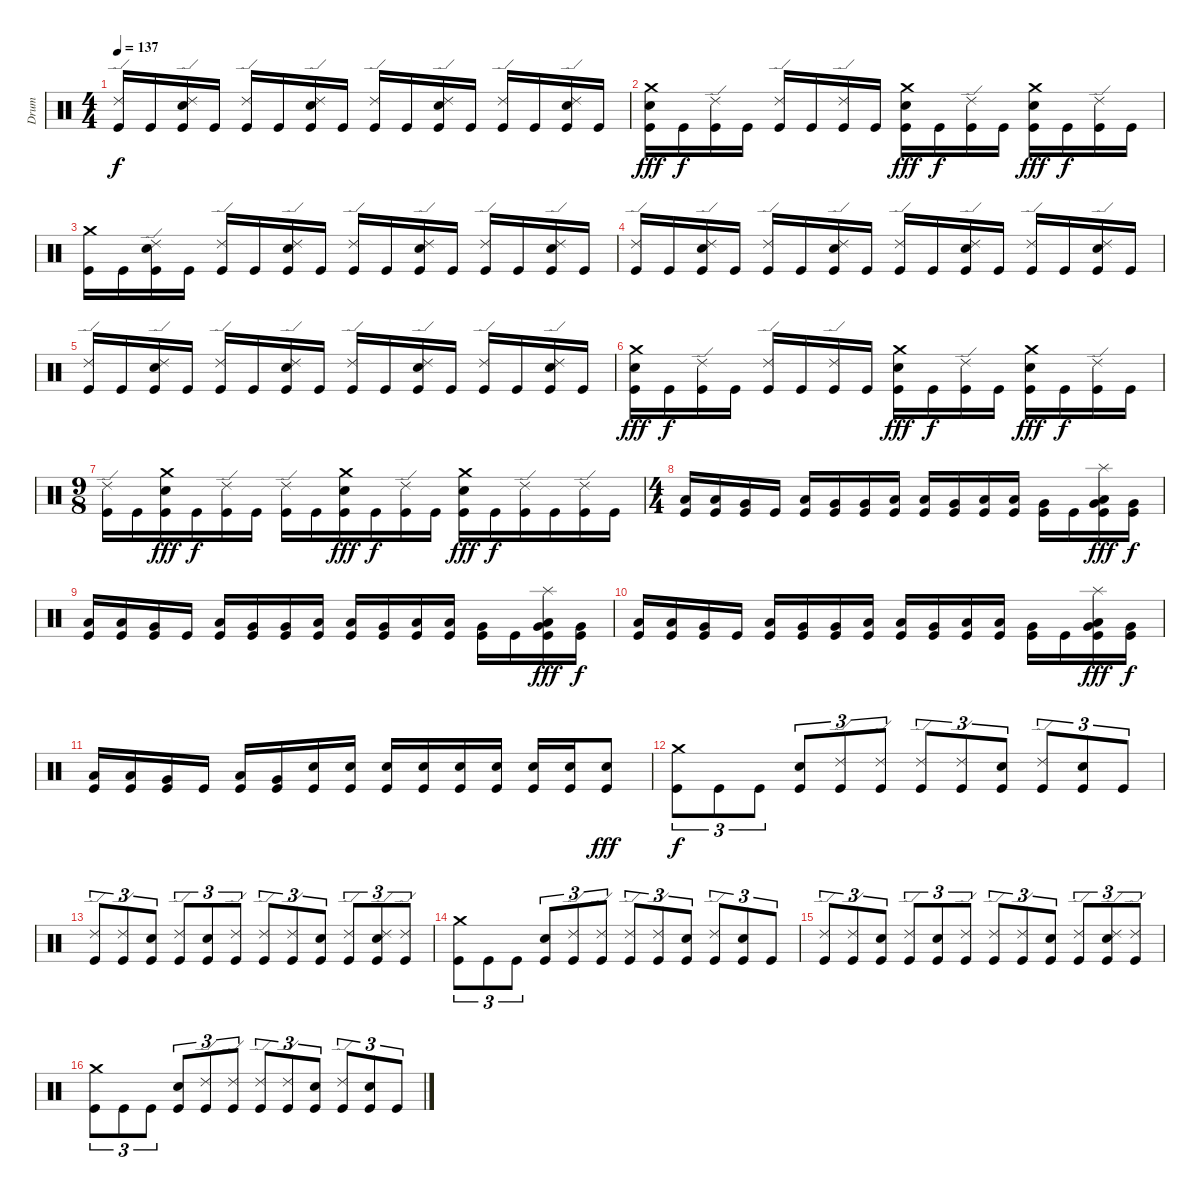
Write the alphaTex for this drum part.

\track ("Drum" "Drum") {instrument percussion}
\staff {score}
\articulation defaults
\ts (4 4)
\tempo 137
\clef neutral
\ks c
("Ride (edge) 2" "Kick (hit)").16{dy f} "Kick (hit)".16 ("Ride (edge) 2" "Snare (hit) 2" "Kick (hit)").16 "Kick (hit)".16 ("Ride (edge) 2" "Kick (hit)").16 "Kick (hit)".16 ("Ride (edge) 2" "Snare (hit) 2" "Kick (hit)").16 "Kick (hit)".16 ("Ride (edge) 2" "Kick (hit)").16 "Kick (hit)".16 ("Ride (edge) 2" "Snare (hit) 2" "Kick (hit)").16 "Kick (hit)".16 ("Ride (edge) 2" "Kick (hit)").16 "Kick (hit)".16 ("Ride (edge) 2" "Snare (hit) 2" "Kick (hit)").16 "Kick (hit)".16 |
("Crash medium (hit)" "Snare (hit) 2" "Kick (hit)").16{dy fff} "Kick (hit)".16{dy f} ("Ride (edge) 2" "Kick (hit)").16 "Kick (hit)".16 ("Ride (edge) 2" "Kick (hit)").16 "Kick (hit)".16 ("Ride (edge) 2" "Kick (hit)").16 "Kick (hit)".16 ("Crash medium (hit)" "Snare (hit) 2" "Kick (hit)").16{dy fff} "Kick (hit)".16{dy f} ("Ride (edge) 2" "Kick (hit)").16 "Kick (hit)".16 ("Crash medium (hit)" "Snare (hit) 2" "Kick (hit)").16{dy fff} "Kick (hit)".16{dy f} ("Ride (edge) 2" "Kick (hit)").16 "Kick (hit)".16 |
("Crash medium (hit)" "Kick (hit)").16 "Kick (hit)".16 ("Ride (edge) 2" "Snare (hit) 2" "Kick (hit)").16 "Kick (hit)".16 ("Ride (edge) 2" "Kick (hit)").16 "Kick (hit)".16 ("Ride (edge) 2" "Snare (hit) 2" "Kick (hit)").16 "Kick (hit)".16 ("Ride (edge) 2" "Kick (hit)").16 "Kick (hit)".16 ("Ride (edge) 2" "Snare (hit) 2" "Kick (hit)").16 "Kick (hit)".16 ("Ride (edge) 2" "Kick (hit)").16 "Kick (hit)".16 ("Ride (edge) 2" "Snare (hit) 2" "Kick (hit)").16 "Kick (hit)".16 |
("Ride (edge) 2" "Kick (hit)").16 "Kick (hit)".16 ("Ride (edge) 2" "Snare (hit) 2" "Kick (hit)").16 "Kick (hit)".16 ("Ride (edge) 2" "Kick (hit)").16 "Kick (hit)".16 ("Ride (edge) 2" "Snare (hit) 2" "Kick (hit)").16 "Kick (hit)".16 ("Ride (edge) 2" "Kick (hit)").16 "Kick (hit)".16 ("Ride (edge) 2" "Snare (hit) 2" "Kick (hit)").16 "Kick (hit)".16 ("Ride (edge) 2" "Kick (hit)").16 "Kick (hit)".16 ("Ride (edge) 2" "Snare (hit) 2" "Kick (hit)").16 "Kick (hit)".16 |
("Ride (edge) 2" "Kick (hit)").16 "Kick (hit)".16 ("Ride (edge) 2" "Snare (hit) 2" "Kick (hit)").16 "Kick (hit)".16 ("Ride (edge) 2" "Kick (hit)").16 "Kick (hit)".16 ("Ride (edge) 2" "Snare (hit) 2" "Kick (hit)").16 "Kick (hit)".16 ("Ride (edge) 2" "Kick (hit)").16 "Kick (hit)".16 ("Ride (edge) 2" "Snare (hit) 2" "Kick (hit)").16 "Kick (hit)".16 ("Ride (edge) 2" "Kick (hit)").16 "Kick (hit)".16 ("Ride (edge) 2" "Snare (hit) 2" "Kick (hit)").16 "Kick (hit)".16 |
("Crash medium (hit)" "Snare (hit) 2" "Kick (hit)").16{dy fff} "Kick (hit)".16{dy f} ("Ride (edge) 2" "Kick (hit)").16 "Kick (hit)".16 ("Ride (edge) 2" "Kick (hit)").16 "Kick (hit)".16 ("Ride (edge) 2" "Kick (hit)").16 "Kick (hit)".16 ("Crash medium (hit)" "Snare (hit) 2" "Kick (hit)").16{dy fff} "Kick (hit)".16{dy f} ("Ride (edge) 2" "Kick (hit)").16 "Kick (hit)".16 ("Crash medium (hit)" "Snare (hit) 2" "Kick (hit)").16{dy fff} "Kick (hit)".16{dy f} ("Ride (edge) 2" "Kick (hit)").16 "Kick (hit)".16 |
\ts (9 8)
("Ride (edge) 2" "Kick (hit)").16 "Kick (hit)".16 ("Crash medium (hit)" "Snare (hit) 2" "Kick (hit)").16{dy fff} "Kick (hit)".16{dy f} ("Ride (edge) 2" "Kick (hit)").16 "Kick (hit)".16 ("Ride (edge) 2" "Kick (hit)").16 "Kick (hit)".16 ("Crash medium (hit)" "Snare (hit) 2" "Kick (hit)").16{dy fff} "Kick (hit)".16{dy f} ("Ride (edge) 2" "Kick (hit)").16 "Kick (hit)".16 ("Crash medium (hit)" "Snare (hit) 2" "Kick (hit)").16{dy fff} "Kick (hit)".16{dy f} ("Ride (edge) 2" "Kick (hit)").16 "Kick (hit)".16 ("Ride (edge) 2" "Kick (hit)").16 "Kick (hit)".16 |
\ts (4 4)
("Low Floor Tom (hit)" "Kick (hit)").16 ("Low Tom (hit)" "Kick (hit)").16 ("Very Low Tom (hit)" "Kick (hit)").16 "Kick (hit)".16 ("Low Tom (hit)" "Kick (hit)").16 ("Very Low Tom (hit)" "Kick (hit)").16 ("Very Low Tom (hit)" "Kick (hit)").16 ("Low Floor Tom (hit)" "Kick (hit)").16 ("Low Tom (hit)" "Kick (hit)").16 ("Very Low Tom (hit)" "Kick (hit)").16 ("Low Floor Tom (hit)" "Kick (hit)").16 ("Low Tom (hit)" "Kick (hit)").16 ("Very Low Tom (hit)" "Kick (hit)").16 "Kick (hit)".16 ("Splash (hit)" "Very Low Tom (hit)" "Low Floor Tom (hit)" "Kick (hit)").16{dy fff} ("Very Low Tom (hit)" "Kick (hit)").16{dy f} |
("Low Floor Tom (hit)" "Kick (hit)").16 ("Low Tom (hit)" "Kick (hit)").16 ("Very Low Tom (hit)" "Kick (hit)").16 "Kick (hit)".16 ("Low Tom (hit)" "Kick (hit)").16 ("Very Low Tom (hit)" "Kick (hit)").16 ("Very Low Tom (hit)" "Kick (hit)").16 ("Low Floor Tom (hit)" "Kick (hit)").16 ("Low Tom (hit)" "Kick (hit)").16 ("Very Low Tom (hit)" "Kick (hit)").16 ("Low Floor Tom (hit)" "Kick (hit)").16 ("Low Tom (hit)" "Kick (hit)").16 ("Very Low Tom (hit)" "Kick (hit)").16 "Kick (hit)".16 ("Splash (hit)" "Very Low Tom (hit)" "Low Floor Tom (hit)" "Kick (hit)").16{dy fff} ("Very Low Tom (hit)" "Kick (hit)").16{dy f} |
("Low Floor Tom (hit)" "Kick (hit)").16 ("Low Tom (hit)" "Kick (hit)").16 ("Very Low Tom (hit)" "Kick (hit)").16 "Kick (hit)".16 ("Low Tom (hit)" "Kick (hit)").16 ("Very Low Tom (hit)" "Kick (hit)").16 ("Very Low Tom (hit)" "Kick (hit)").16 ("Low Floor Tom (hit)" "Kick (hit)").16 ("Low Tom (hit)" "Kick (hit)").16 ("Very Low Tom (hit)" "Kick (hit)").16 ("Low Floor Tom (hit)" "Kick (hit)").16 ("Low Tom (hit)" "Kick (hit)").16 ("Very Low Tom (hit)" "Kick (hit)").16 "Kick (hit)".16 ("Splash (hit)" "Very Low Tom (hit)" "Low Floor Tom (hit)" "Kick (hit)").16{dy fff} ("Very Low Tom (hit)" "Kick (hit)").16{dy f} |
("Low Floor Tom (hit)" "Kick (hit)").16 ("Low Tom (hit)" "Kick (hit)").16 ("Very Low Tom (hit)" "Kick (hit)").16 "Kick (hit)".16 ("Low Tom (hit)" "Kick (hit)").16 ("Very Low Tom (hit)" "Kick (hit)").16 ("Snare (hit) 2" "Kick (hit)").16 ("Snare (hit) 2" "Kick (hit)").16 ("Snare (hit) 2" "Kick (hit)").16 ("Snare (hit) 2" "Kick (hit)").16 ("Snare (hit) 2" "Kick (hit)").16 ("Snare (hit) 2" "Kick (hit)").16 ("Snare (hit) 2" "Kick (hit)").16 ("Snare (hit) 2" "Kick (hit)").16 ("Snare (hit) 2" "Kick (hit)").8{dy fff} |
("Crash medium (hit)" "Kick (hit)").8{tu (3 2) dy f} "Kick (hit)".8{tu (3 2)} "Kick (hit)".8{tu (3 2)} ("Snare (hit) 2" "Kick (hit)").8{tu (3 2)} ("Ride (edge) 2" "Kick (hit)").8{tu (3 2)} ("Ride (edge) 2" "Kick (hit)").8{tu (3 2)} ("Ride (edge) 2" "Kick (hit)").8{tu (3 2)} ("Ride (edge) 2" "Kick (hit)").8{tu (3 2)} ("Snare (hit) 2" "Kick (hit)").8{tu (3 2)} ("Ride (edge) 2" "Kick (hit)").8{tu (3 2)} ("Snare (hit) 2" "Kick (hit)").8{tu (3 2)} "Kick (hit)".8{tu (3 2)} |
("Ride (edge) 2" "Kick (hit)").8{tu (3 2)} ("Ride (edge) 2" "Kick (hit)").8{tu (3 2)} ("Snare (hit) 2" "Kick (hit)").8{tu (3 2)} ("Ride (edge) 2" "Kick (hit)").8{tu (3 2)} ("Snare (hit) 2" "Kick (hit)").8{tu (3 2)} ("Ride (edge) 2" "Kick (hit)").8{tu (3 2)} ("Ride (edge) 2" "Kick (hit)").8{tu (3 2)} ("Ride (edge) 2" "Kick (hit)").8{tu (3 2)} ("Snare (hit) 2" "Kick (hit)").8{tu (3 2)} ("Ride (edge) 2" "Kick (hit)").8{tu (3 2)} ("Ride (edge) 2" "Snare (hit) 2" "Kick (hit)").8{tu (3 2)} ("Ride (edge) 2" "Kick (hit)").8{tu (3 2)} |
("Crash medium (hit)" "Kick (hit)").8{tu (3 2)} "Kick (hit)".8{tu (3 2)} "Kick (hit)".8{tu (3 2)} ("Snare (hit) 2" "Kick (hit)").8{tu (3 2)} ("Ride (edge) 2" "Kick (hit)").8{tu (3 2)} ("Ride (edge) 2" "Kick (hit)").8{tu (3 2)} ("Ride (edge) 2" "Kick (hit)").8{tu (3 2)} ("Ride (edge) 2" "Kick (hit)").8{tu (3 2)} ("Snare (hit) 2" "Kick (hit)").8{tu (3 2)} ("Ride (edge) 2" "Kick (hit)").8{tu (3 2)} ("Snare (hit) 2" "Kick (hit)").8{tu (3 2)} "Kick (hit)".8{tu (3 2)} |
("Ride (edge) 2" "Kick (hit)").8{tu (3 2)} ("Ride (edge) 2" "Kick (hit)").8{tu (3 2)} ("Snare (hit) 2" "Kick (hit)").8{tu (3 2)} ("Ride (edge) 2" "Kick (hit)").8{tu (3 2)} ("Snare (hit) 2" "Kick (hit)").8{tu (3 2)} ("Ride (edge) 2" "Kick (hit)").8{tu (3 2)} ("Ride (edge) 2" "Kick (hit)").8{tu (3 2)} ("Ride (edge) 2" "Kick (hit)").8{tu (3 2)} ("Snare (hit) 2" "Kick (hit)").8{tu (3 2)} ("Ride (edge) 2" "Kick (hit)").8{tu (3 2)} ("Ride (edge) 2" "Snare (hit) 2" "Kick (hit)").8{tu (3 2)} ("Ride (edge) 2" "Kick (hit)").8{tu (3 2)} |
("Crash medium (hit)" "Kick (hit)").8{tu (3 2)} "Kick (hit)".8{tu (3 2)} "Kick (hit)".8{tu (3 2)} ("Snare (hit) 2" "Kick (hit)").8{tu (3 2)} ("Ride (edge) 2" "Kick (hit)").8{tu (3 2)} ("Ride (edge) 2" "Kick (hit)").8{tu (3 2)} ("Ride (edge) 2" "Kick (hit)").8{tu (3 2)} ("Ride (edge) 2" "Kick (hit)").8{tu (3 2)} ("Snare (hit) 2" "Kick (hit)").8{tu (3 2)} ("Ride (edge) 2" "Kick (hit)").8{tu (3 2)} ("Snare (hit) 2" "Kick (hit)").8{tu (3 2)} "Kick (hit)".8{tu (3 2)}
